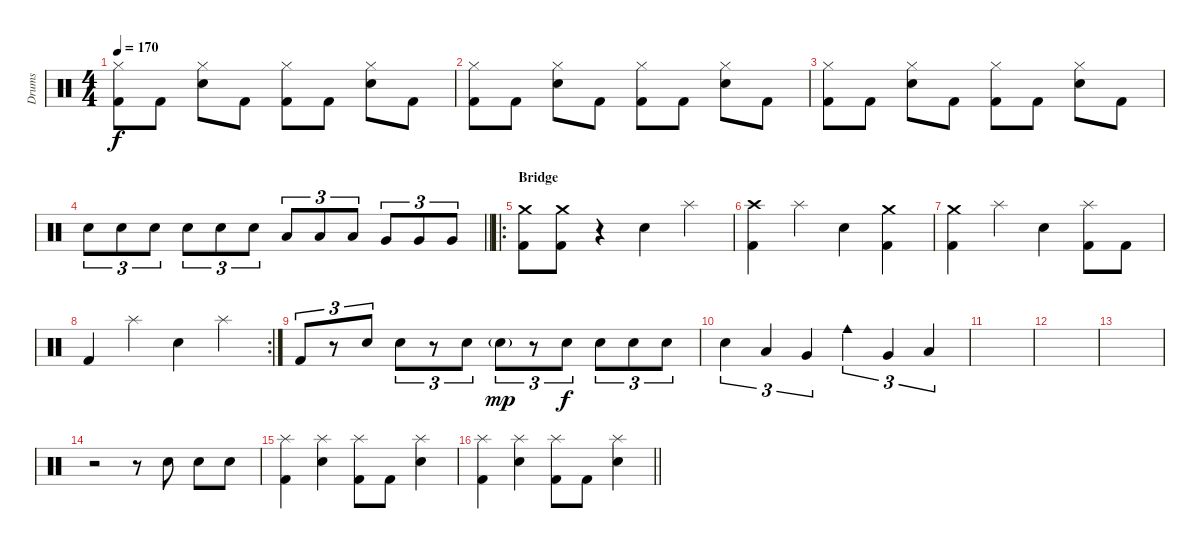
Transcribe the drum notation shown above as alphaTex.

\track ("Drums" "Drums") {instrument percussion}
\staff {score}
\articulation defaults
\ts (4 4)
\tempo 170
\clef neutral
\ks aminor
("Hi-Hat (closed)" "Kick (hit) 2").8{dy f} "Kick (hit) 2".8 ("Hi-Hat (closed)" "Snare (hit) 2").8 "Kick (hit) 2".8 ("Hi-Hat (closed)" "Kick (hit) 2").8 "Kick (hit) 2".8 ("Hi-Hat (closed)" "Snare (hit) 2").8 "Kick (hit) 2".8 |
("Hi-Hat (closed)" "Kick (hit) 2").8 "Kick (hit) 2".8 ("Hi-Hat (closed)" "Snare (hit) 2").8 "Kick (hit) 2".8 ("Hi-Hat (closed)" "Kick (hit) 2").8 "Kick (hit) 2".8 ("Hi-Hat (closed)" "Snare (hit) 2").8 "Kick (hit) 2".8 |
("Hi-Hat (closed)" "Kick (hit) 2").8 "Kick (hit) 2".8 ("Hi-Hat (closed)" "Snare (hit) 2").8 "Kick (hit) 2".8 ("Hi-Hat (closed)" "Kick (hit) 2").8 "Kick (hit) 2".8 ("Hi-Hat (closed)" "Snare (hit) 2").8 "Kick (hit) 2".8 |
\barLineRight lightlight "Snare (hit) 2".8{tu (3 2)} "Snare (hit) 2".8{tu (3 2)} "Snare (hit) 2".8{tu (3 2)} "Snare (hit) 2".8{tu (3 2)} "Snare (hit) 2".8{tu (3 2)} "Snare (hit) 2".8{tu (3 2)} "Low Tom (hit)".8{tu (3 2)} "Low Tom (hit)".8{tu (3 2)} "Low Tom (hit)".8{tu (3 2)} "Very Low Tom (hit)".8{tu (3 2)} "Very Low Tom (hit)".8{tu (3 2)} "Very Low Tom (hit)".8{tu (3 2)}
|
\ro
\section ("" "Bridge")
("Crash medium (hit)" "Kick (hit) 2").8 ("Crash medium (hit)" "Kick (hit) 2").8 r.4 "Snare (hit) 2".4 "Splash (hit)".4 |
("Crash high (hit)" "Kick (hit) 2").4 "Splash (hit)".4 "Snare (hit) 2".4 ("Crash medium (hit)" "Kick (hit) 2").4 |
("Crash medium (hit)" "Kick (hit) 2").4 "Splash (hit)".4 "Snare (hit) 2".4 ("Splash (hit)" "Kick (hit) 2").8 "Kick (hit) 2".8 |
\rc 2 "Kick (hit) 2".4 "Splash (hit)".4 "Snare (hit) 2".4 "Splash (hit)".4
|
"Kick (hit) 2".8{tu (3 2)} r.8{tu (3 2)} "Electric Snare (hit)".8{tu (3 2)} "Electric Snare (hit)".8{tu (3 2)} r.8{tu (3 2)} "Electric Snare (hit)".8{tu (3 2)} "Electric Snare (hit)"{g}.8{tu (3 2) dy mp} r.8{tu (3 2)} "Electric Snare (hit)".8{tu (3 2) dy f} "Electric Snare (hit)".8{tu (3 2)} "Electric Snare (hit)".8{tu (3 2)} "Electric Snare (hit)".8{tu (3 2)} |
"Electric Snare (hit)".4{tu (3 2)} "Low Tom (hit)".4{tu (3 2)} "Very Low Tom (hit)".4{tu (3 2)} "Cowbell medium (hit)".4{tu (3 2)} "Very Low Tom (hit)".4{tu (3 2)} "Low Floor Tom (hit)".4{tu (3 2)} |
|
|
|
r.2 r.8 "Snare (hit) 2".8 "Snare (hit) 2".8 "Snare (hit) 2".8 |
("Splash (hit)" "Kick (hit) 2").4 ("Splash (hit)" "Snare (hit) 2").4 ("Splash (hit)" "Kick (hit) 2").8 "Kick (hit) 2".8 ("Splash (hit)" "Snare (hit) 2").4 |
\barLineRight lightlight
("Splash (hit)" "Kick (hit) 2").4 ("Splash (hit)" "Snare (hit) 2").4 ("Splash (hit)" "Kick (hit) 2").8 "Kick (hit) 2".8 ("Splash (hit)" "Snare (hit) 2").4
